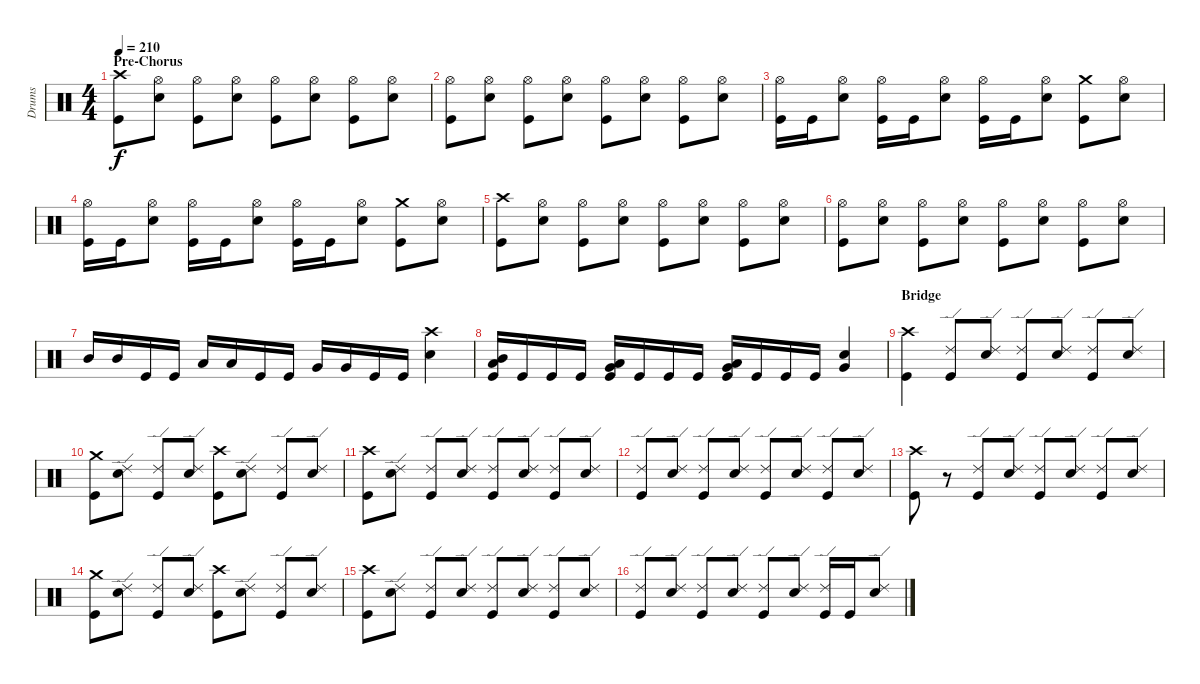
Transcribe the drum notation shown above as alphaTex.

\track ("Drums" "Drums") {instrument percussion}
\staff {score}
\articulation defaults
\ts (4 4)
\section ("" "Pre-Chorus")
\tempo 210
\clef neutral
\ks c
("Crash high (hit)" "Kick (hit)").8{dy f} ("Hi-Hat (open)" "Snare (hit) 2").8 ("Hi-Hat (open)" "Kick (hit)").8 ("Hi-Hat (open)" "Snare (hit) 2").8 ("Hi-Hat (open)" "Kick (hit)").8 ("Hi-Hat (open)" "Snare (hit) 2").8 ("Hi-Hat (open)" "Kick (hit)").8 ("Hi-Hat (open)" "Snare (hit) 2").8 |
("Hi-Hat (open)" "Kick (hit)").8 ("Hi-Hat (open)" "Snare (hit) 2").8 ("Hi-Hat (open)" "Kick (hit)").8 ("Hi-Hat (open)" "Snare (hit) 2").8 ("Hi-Hat (open)" "Kick (hit)").8 ("Hi-Hat (open)" "Snare (hit) 2").8 ("Hi-Hat (open)" "Kick (hit)").8 ("Hi-Hat (open)" "Snare (hit) 2").8 |
("Hi-Hat (open)" "Kick (hit)").16 "Kick (hit)".16 ("Hi-Hat (open)" "Snare (hit) 2").8 ("Hi-Hat (open)" "Kick (hit)").16 "Kick (hit)".16 ("Hi-Hat (open)" "Snare (hit) 2").8 ("Hi-Hat (open)" "Kick (hit)").16 "Kick (hit)".16 ("Hi-Hat (open)" "Snare (hit) 2").8 ("Crash medium (hit)" "Kick (hit)").8 ("Hi-Hat (open)" "Snare (hit) 2").8 |
("Hi-Hat (open)" "Kick (hit)").16 "Kick (hit)".16 ("Hi-Hat (open)" "Snare (hit) 2").8 ("Hi-Hat (open)" "Kick (hit)").16 "Kick (hit)".16 ("Hi-Hat (open)" "Snare (hit) 2").8 ("Hi-Hat (open)" "Kick (hit)").16 "Kick (hit)".16 ("Hi-Hat (open)" "Snare (hit) 2").8 ("Crash medium (hit)" "Kick (hit)").8 ("Hi-Hat (open)" "Snare (hit) 2").8 |
("Crash high (hit)" "Kick (hit)").8 ("Hi-Hat (open)" "Snare (hit) 2").8 ("Hi-Hat (open)" "Kick (hit)").8 ("Hi-Hat (open)" "Snare (hit) 2").8 ("Hi-Hat (open)" "Kick (hit)").8 ("Hi-Hat (open)" "Snare (hit) 2").8 ("Hi-Hat (open)" "Kick (hit)").8 ("Hi-Hat (open)" "Snare (hit) 2").8 |
("Hi-Hat (open)" "Kick (hit)").8 ("Hi-Hat (open)" "Snare (hit) 2").8 ("Hi-Hat (open)" "Kick (hit)").8 ("Hi-Hat (open)" "Snare (hit) 2").8 ("Hi-Hat (open)" "Kick (hit)").8 ("Hi-Hat (open)" "Snare (hit) 2").8 ("Hi-Hat (open)" "Kick (hit)").8 ("Hi-Hat (open)" "Snare (hit) 2").8 |
"Mid Tom (hit)".16 "Mid Tom (hit)".16 "Kick (hit)".16 "Kick (hit)".16 "Low Tom (hit)".16 "Low Tom (hit)".16 "Kick (hit)".16 "Kick (hit)".16 "Very Low Tom (hit)".16 "Very Low Tom (hit)".16 "Kick (hit)".16 "Kick (hit)".16 ("Crash high (hit)" "Snare (hit) 2").4 |
("Mid Tom (hit)" "Low Tom (hit)" "Kick (hit)").16 "Kick (hit)".16 "Kick (hit)".16 "Kick (hit)".16 ("Low Tom (hit)" "Very Low Tom (hit)" "Kick (hit)").16 "Kick (hit)".16 "Kick (hit)".16 "Kick (hit)".16 ("Very Low Tom (hit)" "Low Floor Tom (hit)" "Kick (hit)").16 "Kick (hit)".16 "Kick (hit)".16 "Kick (hit)".16 ("Very Low Tom (hit)" "Snare (hit) 2").4 |
\section ("" "Bridge")
("Crash high (hit)" "Kick (hit)").4 ("Ride (edge) 2" "Kick (hit)").8 ("Ride (edge) 2" "Snare (hit) 2").8 ("Ride (edge) 2" "Kick (hit)").8 ("Ride (edge) 2" "Snare (hit) 2").8 ("Ride (edge) 2" "Kick (hit)").8 ("Ride (edge) 2" "Snare (hit) 2").8 |
("Crash medium (hit)" "Kick (hit)").8 ("Ride (edge) 2" "Snare (hit) 2").8 ("Ride (edge) 2" "Kick (hit)").8 ("Ride (edge) 2" "Snare (hit) 2").8 ("Crash high (hit)" "Kick (hit)").8 ("Ride (edge) 2" "Snare (hit) 2").8 ("Ride (edge) 2" "Kick (hit)").8 ("Ride (edge) 2" "Snare (hit) 2").8 |
("Crash high (hit)" "Kick (hit)").8 ("Ride (edge) 2" "Snare (hit) 2").8 ("Ride (edge) 2" "Kick (hit)").8 ("Ride (edge) 2" "Snare (hit) 2").8 ("Ride (edge) 2" "Kick (hit)").8 ("Ride (edge) 2" "Snare (hit) 2").8 ("Ride (edge) 2" "Kick (hit)").8 ("Ride (edge) 2" "Snare (hit) 2").8 |
("Ride (edge) 2" "Kick (hit)").8 ("Ride (edge) 2" "Snare (hit) 2").8 ("Ride (edge) 2" "Kick (hit)").8 ("Ride (edge) 2" "Snare (hit) 2").8 ("Ride (edge) 2" "Kick (hit)").8 ("Ride (edge) 2" "Snare (hit) 2").8 ("Ride (edge) 2" "Kick (hit)").8 ("Ride (edge) 2" "Snare (hit) 2").8 |
("Crash high (hit)" "Kick (hit)").8 r.8 ("Ride (edge) 2" "Kick (hit)").8 ("Ride (edge) 2" "Snare (hit) 2").8 ("Ride (edge) 2" "Kick (hit)").8 ("Ride (edge) 2" "Snare (hit) 2").8 ("Ride (edge) 2" "Kick (hit)").8 ("Ride (edge) 2" "Snare (hit) 2").8 |
("Crash medium (hit)" "Kick (hit)").8 ("Ride (edge) 2" "Snare (hit) 2").8 ("Ride (edge) 2" "Kick (hit)").8 ("Ride (edge) 2" "Snare (hit) 2").8 ("Crash high (hit)" "Kick (hit)").8 ("Ride (edge) 2" "Snare (hit) 2").8 ("Ride (edge) 2" "Kick (hit)").8 ("Ride (edge) 2" "Snare (hit) 2").8 |
("Crash high (hit)" "Kick (hit)").8 ("Ride (edge) 2" "Snare (hit) 2").8 ("Ride (edge) 2" "Kick (hit)").8 ("Ride (edge) 2" "Snare (hit) 2").8 ("Ride (edge) 2" "Kick (hit)").8 ("Ride (edge) 2" "Snare (hit) 2").8 ("Ride (edge) 2" "Kick (hit)").8 ("Ride (edge) 2" "Snare (hit) 2").8 |
("Ride (edge) 2" "Kick (hit)").8 ("Ride (edge) 2" "Snare (hit) 2").8 ("Ride (edge) 2" "Kick (hit)").8 ("Ride (edge) 2" "Snare (hit) 2").8 ("Ride (edge) 2" "Kick (hit)").8 ("Ride (edge) 2" "Snare (hit) 2").8 ("Ride (edge) 2" "Kick (hit)").16 "Kick (hit)".16 ("Ride (edge) 2" "Snare (hit) 2").8
